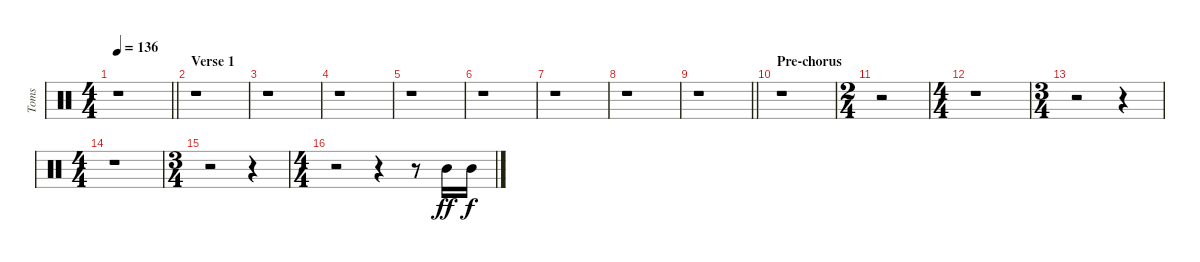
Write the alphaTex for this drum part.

\track ("Toms" "Toms") {instrument percussion}
\staff {score}
\articulation defaults
\ts (4 4)
\tempo 136
\clef neutral
\barLineRight lightlight
\ks c
r.1{dy ff} |
\section ("" "Verse 1")
r.1 |
r.1 |
r.1 |
r.1 |
r.1 |
r.1 |
r.1 |
\barLineRight lightlight
r.1 |
\section ("" "Pre-chorus")
r.1 |
\ts (2 4)
r.2 |
\ts (4 4)
r.1 |
\ts (3 4)
r.2 r.4 |
\ts (4 4)
r.1 |
\ts (3 4)
r.2 r.4 |
\ts (4 4)
r.2 r.4 r.8 "Mid Tom (hit)".16 "Mid Tom (hit)".16{dy f}
